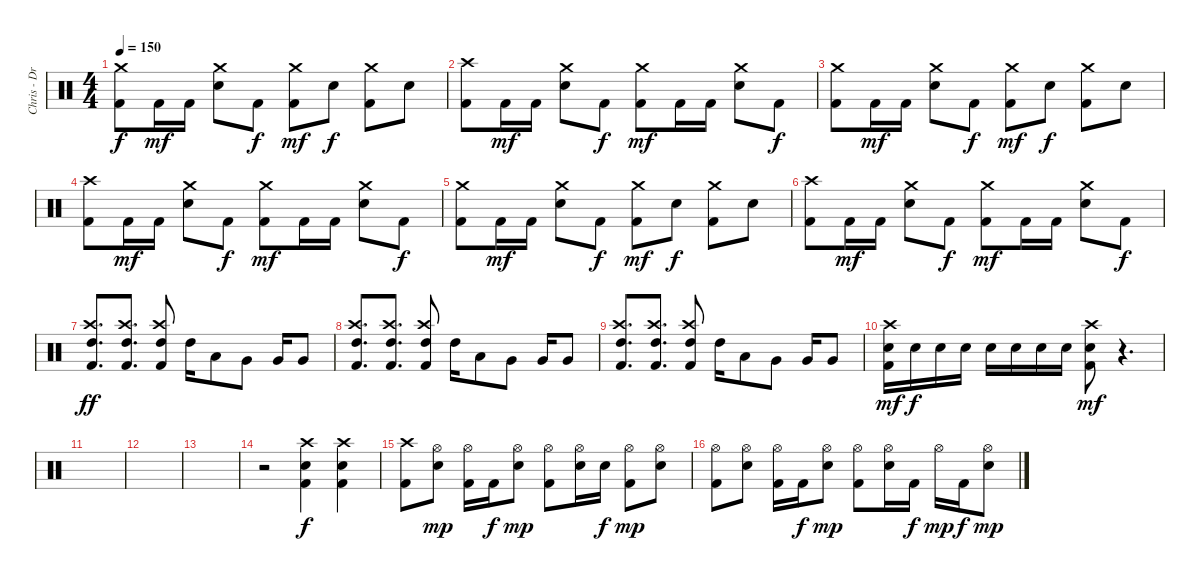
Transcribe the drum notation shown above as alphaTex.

\track ("Chris - Drums" "Chris - Dr") {instrument percussion}
\staff {score}
\articulation defaults
\ts (4 4)
\tempo 150
\clef neutral
\ks c
("Crash medium (hit)" "Kick (hit) 2").8{dy f} "Kick (hit) 2".16{dy mf} "Kick (hit) 2".16 ("Crash medium (hit)" "Electric Snare (hit)").8 "Kick (hit) 2".8{dy f} ("Crash medium (hit)" "Kick (hit) 2").8{dy mf} "Electric Snare (hit)".8{dy f} ("Crash medium (hit)" "Kick (hit) 2").8 "Electric Snare (hit)".8 |
("Crash high (hit)" "Kick (hit) 2").8 "Kick (hit) 2".16{dy mf} "Kick (hit) 2".16 ("Crash medium (hit)" "Electric Snare (hit)").8 "Kick (hit) 2".8{dy f} ("Crash medium (hit)" "Kick (hit) 2").8{dy mf} "Kick (hit) 2".16 "Kick (hit) 2".16 ("Crash medium (hit)" "Electric Snare (hit)").8 "Kick (hit) 2".8{dy f} |
("Crash medium (hit)" "Kick (hit) 2").8 "Kick (hit) 2".16{dy mf} "Kick (hit) 2".16 ("Crash medium (hit)" "Electric Snare (hit)").8 "Kick (hit) 2".8{dy f} ("Crash medium (hit)" "Kick (hit) 2").8{dy mf} "Electric Snare (hit)".8{dy f} ("Crash medium (hit)" "Kick (hit) 2").8 "Electric Snare (hit)".8 |
("Crash high (hit)" "Kick (hit) 2").8 "Kick (hit) 2".16{dy mf} "Kick (hit) 2".16 ("Crash medium (hit)" "Electric Snare (hit)").8 "Kick (hit) 2".8{dy f} ("Crash medium (hit)" "Kick (hit) 2").8{dy mf} "Kick (hit) 2".16 "Kick (hit) 2".16 ("Crash medium (hit)" "Electric Snare (hit)").8 "Kick (hit) 2".8{dy f} |
("Crash medium (hit)" "Kick (hit) 2").8 "Kick (hit) 2".16{dy mf} "Kick (hit) 2".16 ("Crash medium (hit)" "Electric Snare (hit)").8 "Kick (hit) 2".8{dy f} ("Crash medium (hit)" "Kick (hit) 2").8{dy mf} "Electric Snare (hit)".8{dy f} ("Crash medium (hit)" "Kick (hit) 2").8 "Electric Snare (hit)".8 |
("Crash high (hit)" "Kick (hit) 2").8 "Kick (hit) 2".16{dy mf} "Kick (hit) 2".16 ("Crash medium (hit)" "Electric Snare (hit)").8 "Kick (hit) 2".8{dy f} ("Crash medium (hit)" "Kick (hit) 2").8{dy mf} "Kick (hit) 2".16 "Kick (hit) 2".16 ("Crash medium (hit)" "Electric Snare (hit)").8 "Kick (hit) 2".8{dy f} |
("Crash high (hit)" "High Tom (hit)" "Kick (hit) 2").8{d dy ff} ("Crash high (hit)" "High Tom (hit)" "Kick (hit) 2").8{d} ("Crash high (hit)" "High Tom (hit)" "Kick (hit) 2").8 "High Tom (hit)".16 "Low Tom (hit)".8 "Very Low Tom (hit)".8 "Very Low Tom (hit)".16 "Very Low Tom (hit)".8 |
("Crash high (hit)" "High Tom (hit)" "Kick (hit) 2").8{d} ("Crash high (hit)" "High Tom (hit)" "Kick (hit) 2").8{d} ("Crash high (hit)" "High Tom (hit)" "Kick (hit) 2").8 "High Tom (hit)".16 "Low Tom (hit)".8 "Very Low Tom (hit)".8 "Very Low Tom (hit)".16 "Very Low Tom (hit)".8 |
("Crash high (hit)" "High Tom (hit)" "Kick (hit) 2").8{d} ("Crash high (hit)" "High Tom (hit)" "Kick (hit) 2").8{d} ("Crash high (hit)" "High Tom (hit)" "Kick (hit) 2").8 "High Tom (hit)".16 "Low Tom (hit)".8 "Very Low Tom (hit)".8 "Very Low Tom (hit)".16 "Very Low Tom (hit)".8 |
("Crash high (hit)" "Electric Snare (hit)" "Kick (hit) 2").16{dy mf} "Electric Snare (hit)".16{dy f} "Electric Snare (hit)".16 "Electric Snare (hit)".16 "Electric Snare (hit)".16 "Electric Snare (hit)".16 "Electric Snare (hit)".16 "Electric Snare (hit)".16 ("Crash high (hit)" "Electric Snare (hit)" "Kick (hit) 2").8{dy mf} r.4{d} |
|
|
|
r.2 ("Crash high (hit)" "Electric Snare (hit)" "Kick (hit) 2").4{dy f} ("Crash high (hit)" "Electric Snare (hit)" "Kick (hit) 2").4 |
("Crash high (hit)" "Kick (hit) 2").8 ("Hi-Hat (open)" "Electric Snare (hit)").8{dy mp} ("Hi-Hat (open)" "Kick (hit) 2").16 "Kick (hit) 2".16{dy f} ("Hi-Hat (open)" "Electric Snare (hit)").8{dy mp} ("Hi-Hat (open)" "Kick (hit) 2").8 ("Hi-Hat (open)" "Electric Snare (hit)").16 "Electric Snare (hit)".16{dy f} ("Hi-Hat (open)" "Kick (hit) 2").8{dy mp} ("Hi-Hat (open)" "Electric Snare (hit)").8 |
("Hi-Hat (open)" "Kick (hit) 2").8 ("Hi-Hat (open)" "Electric Snare (hit)").8 ("Hi-Hat (open)" "Kick (hit) 2").16 "Kick (hit) 2".16{dy f} ("Hi-Hat (open)" "Electric Snare (hit)").8{dy mp} ("Hi-Hat (open)" "Kick (hit) 2").8 ("Hi-Hat (open)" "Electric Snare (hit)").16 "Kick (hit) 2".16{dy f} "Hi-Hat (open)".16{dy mp} "Kick (hit) 2".16{dy f} ("Hi-Hat (open)" "Electric Snare (hit)").8{dy mp}
